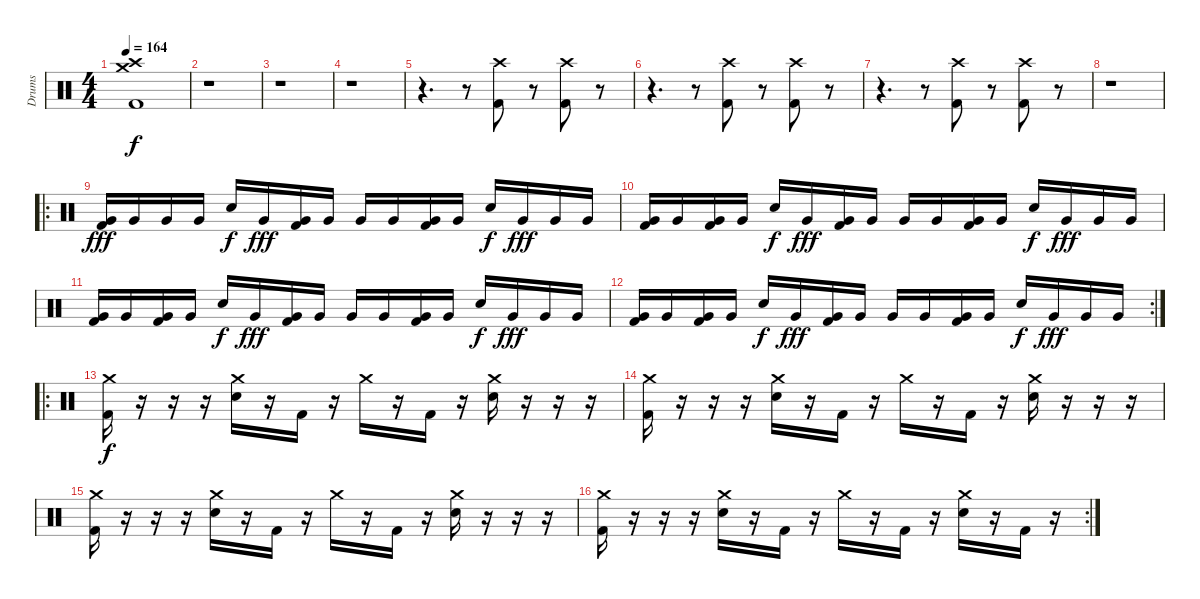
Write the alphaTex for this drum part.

\track ("Drums" "Drums") {instrument percussion}
\staff {score}
\articulation defaults
\ts (4 4)
\tempo 164
\clef neutral
\ks c
("Crash high (hit)" "Crash medium (hit)" "Kick (hit) 2").1{dy f} |
r.1 |
r.1 |
r.1 |
r.4{d} r.8 ("Crash high (hit)" "Kick (hit) 2").8 r.8 ("Crash high (hit)" "Kick (hit) 2").8 r.8 |
r.4{d} r.8 ("Crash high (hit)" "Kick (hit) 2").8 r.8 ("Crash high (hit)" "Kick (hit) 2").8 r.8 |
r.4{d} r.8 ("Crash high (hit)" "Kick (hit) 2").8 r.8 ("Crash high (hit)" "Kick (hit) 2").8 r.8 |
r.1 |
\ro
("Very Low Tom (hit)" "Kick (hit) 2").16{dy fff} "Very Low Tom (hit)".16 "Very Low Tom (hit)".16 "Very Low Tom (hit)".16 "Snare (hit) 2".16{dy f} "Very Low Tom (hit)".16{dy fff} ("Very Low Tom (hit)" "Kick (hit) 2").16 "Very Low Tom (hit)".16 "Very Low Tom (hit)".16 "Very Low Tom (hit)".16 ("Very Low Tom (hit)" "Kick (hit) 2").16 "Very Low Tom (hit)".16 "Snare (hit) 2".16{dy f} "Very Low Tom (hit)".16{dy fff} "Very Low Tom (hit)".16 "Very Low Tom (hit)".16 |
("Very Low Tom (hit)" "Kick (hit) 2").16 "Very Low Tom (hit)".16 ("Very Low Tom (hit)" "Kick (hit) 2").16 "Very Low Tom (hit)".16 "Snare (hit) 2".16{dy f} "Very Low Tom (hit)".16{dy fff} ("Very Low Tom (hit)" "Kick (hit) 2").16 "Very Low Tom (hit)".16 "Very Low Tom (hit)".16 "Very Low Tom (hit)".16 ("Very Low Tom (hit)" "Kick (hit) 2").16 "Very Low Tom (hit)".16 "Snare (hit) 2".16{dy f} "Very Low Tom (hit)".16{dy fff} "Very Low Tom (hit)".16 "Very Low Tom (hit)".16 |
("Very Low Tom (hit)" "Kick (hit) 2").16 "Very Low Tom (hit)".16 ("Very Low Tom (hit)" "Kick (hit) 2").16 "Very Low Tom (hit)".16 "Snare (hit) 2".16{dy f} "Very Low Tom (hit)".16{dy fff} ("Very Low Tom (hit)" "Kick (hit) 2").16 "Very Low Tom (hit)".16 "Very Low Tom (hit)".16 "Very Low Tom (hit)".16 ("Very Low Tom (hit)" "Kick (hit) 2").16 "Very Low Tom (hit)".16 "Snare (hit) 2".16{dy f} "Very Low Tom (hit)".16{dy fff} "Very Low Tom (hit)".16 "Very Low Tom (hit)".16 |
\rc 2
("Very Low Tom (hit)" "Kick (hit) 2").16 "Very Low Tom (hit)".16 ("Very Low Tom (hit)" "Kick (hit) 2").16 "Very Low Tom (hit)".16 "Snare (hit) 2".16{dy f} "Very Low Tom (hit)".16{dy fff} ("Very Low Tom (hit)" "Kick (hit) 2").16 "Very Low Tom (hit)".16 "Very Low Tom (hit)".16 "Very Low Tom (hit)".16 ("Very Low Tom (hit)" "Kick (hit) 2").16 "Very Low Tom (hit)".16 "Snare (hit) 2".16{dy f} "Very Low Tom (hit)".16{dy fff} "Very Low Tom (hit)".16 "Very Low Tom (hit)".16 |
\ro
("Crash medium (hit)" "Kick (hit) 2").16{dy f} r.16 r.16 r.16 ("Crash medium (hit)" "Snare (hit) 2").16 r.16 "Kick (hit) 2".16 r.16 "Crash medium (hit)".16 r.16 "Kick (hit) 2".16 r.16 ("Crash medium (hit)" "Snare (hit) 2").16 r.16 r.16 r.16 |
("Crash medium (hit)" "Kick (hit) 2").16 r.16 r.16 r.16 ("Crash medium (hit)" "Snare (hit) 2").16 r.16 "Kick (hit) 2".16 r.16 "Crash medium (hit)".16 r.16 "Kick (hit) 2".16 r.16 ("Crash medium (hit)" "Snare (hit) 2").16 r.16 r.16 r.16 |
("Crash medium (hit)" "Kick (hit) 2").16 r.16 r.16 r.16 ("Crash medium (hit)" "Snare (hit) 2").16 r.16 "Kick (hit) 2".16 r.16 "Crash medium (hit)".16 r.16 "Kick (hit) 2".16 r.16 ("Crash medium (hit)" "Snare (hit) 2").16 r.16 r.16 r.16 |
\rc 2
("Crash medium (hit)" "Kick (hit) 2").16 r.16 r.16 r.16 ("Crash medium (hit)" "Snare (hit) 2").16 r.16 "Kick (hit) 2".16 r.16 "Crash medium (hit)".16 r.16 "Kick (hit) 2".16 r.16 ("Crash medium (hit)" "Snare (hit) 2").16 r.16 "Kick (hit) 2".16 r.16
